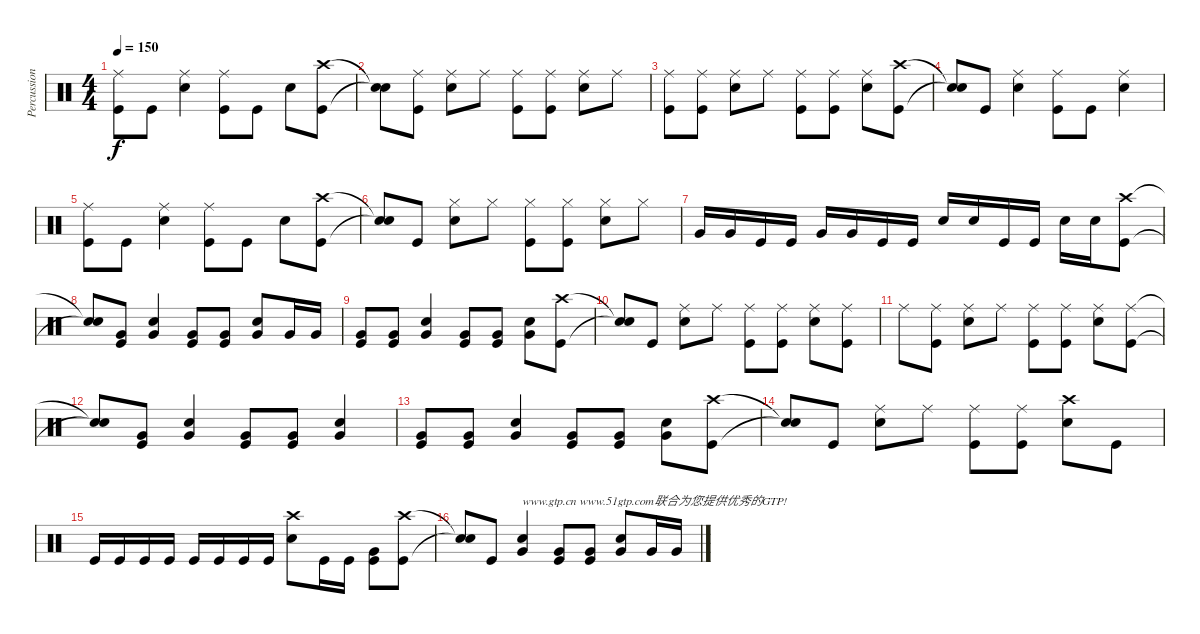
\track ("Percussion" "Percussion") {instrument percussion}
\staff {score}
\articulation defaults
\ts (4 4)
\tempo 150
\clef neutral
\ks c
("Ride (middle)" "Kick (hit)").8{dy f} "Kick (hit)".8 ("Ride (middle)" "Electric Snare (hit)").4 ("Ride (middle)" "Kick (hit)").8 "Kick (hit)".8 "Electric Snare (hit)".8 ("Crash high (hit)" "Kick (hit)").8 |
("Snare (hit)"{t} "Snare (hit)"{t}).8 ("Ride (middle)" "Kick (hit)").8 ("Ride (middle)" "Electric Snare (hit)").8 "Ride (middle)".8 ("Ride (middle)" "Kick (hit)").8 ("Ride (middle)" "Kick (hit)").8 ("Ride (middle)" "Electric Snare (hit)").8 "Ride (middle)".8 |
("Ride (middle)" "Kick (hit)").8 ("Ride (middle)" "Kick (hit)").8 ("Ride (middle)" "Electric Snare (hit)").8 "Ride (middle)".8 ("Ride (middle)" "Kick (hit)").8 ("Ride (middle)" "Kick (hit)").8 ("Ride (middle)" "Electric Snare (hit)").8 ("Crash high (hit)" "Kick (hit)").8 |
("Snare (hit)"{t} "Snare (hit)"{t}).8 "Kick (hit)".8 ("Ride (middle)" "Electric Snare (hit)").4 ("Ride (middle)" "Kick (hit)").8 "Kick (hit)".8 ("Ride (middle)" "Electric Snare (hit)").4 |
("Ride (middle)" "Kick (hit)").8 "Kick (hit)".8 ("Ride (middle)" "Electric Snare (hit)").4 ("Ride (middle)" "Kick (hit)").8 "Kick (hit)".8 "Electric Snare (hit)".8 ("Crash high (hit)" "Kick (hit)").8 |
("Snare (hit)"{t} "Snare (hit)"{t}).8 "Kick (hit)".8 ("Hi-Hat (closed)" "Electric Snare (hit)").8 "Hi-Hat (closed)".8 ("Hi-Hat (closed)" "Kick (hit)").8 ("Hi-Hat (closed)" "Kick (hit)").8 ("Hi-Hat (closed)" "Electric Snare (hit)").8 "Hi-Hat (closed)".8 |
"Very Low Tom (hit)".16 "Very Low Tom (hit)".16 "Kick (hit)".16 "Kick (hit)".16 "Very Low Tom (hit)".16 "Very Low Tom (hit)".16 "Kick (hit)".16 "Kick (hit)".16 "Electric Snare (hit)".16 "Electric Snare (hit)".16 "Kick (hit)".16 "Kick (hit)".16 "Electric Snare (hit)".16 "Electric Snare (hit)".16 ("Crash high (hit)" "Kick (hit)").8 |
("Snare (hit)"{t} "Snare (hit)"{t}).8 ("Very Low Tom (hit)" "Kick (hit)").8 ("Very Low Tom (hit)" "Electric Snare (hit)").4 ("Very Low Tom (hit)" "Kick (hit)").8 ("Very Low Tom (hit)" "Kick (hit)").8 ("Electric Snare (hit)" "Very Low Tom (hit)").8 "Very Low Tom (hit)".16 "Very Low Tom (hit)".16 |
("Very Low Tom (hit)" "Kick (hit)").8 ("Very Low Tom (hit)" "Kick (hit)").8 ("Very Low Tom (hit)" "Electric Snare (hit)").4 ("Very Low Tom (hit)" "Kick (hit)").8 ("Very Low Tom (hit)" "Kick (hit)").8 ("Very Low Tom (hit)" "Electric Snare (hit)").8 ("Crash high (hit)" "Kick (hit)").8 |
("Snare (hit)"{t} "Snare (hit)"{t}).8 "Kick (hit)".8 ("Ride (middle)" "Electric Snare (hit)").8 "Ride (middle)".8 ("Ride (middle)" "Kick (hit)").8 ("Ride (middle)" "Kick (hit)").8 ("Ride (middle)" "Electric Snare (hit)").8 ("Ride (middle)" "Kick (hit)").8 |
"Ride (middle)".8 ("Ride (middle)" "Kick (hit)").8 ("Ride (middle)" "Electric Snare (hit)").8 "Ride (middle)".8 ("Ride (middle)" "Kick (hit)").8 ("Ride (middle)" "Kick (hit)").8 ("Ride (middle)" "Electric Snare (hit)").8 ("Ride (middle)" "Kick (hit)").8 |
("Snare (hit)"{t} "Snare (hit)"{t}).8 ("Very Low Tom (hit)" "Kick (hit)").8 ("Electric Snare (hit)" "Very Low Tom (hit)").4 ("Very Low Tom (hit)" "Kick (hit)").8 ("Very Low Tom (hit)" "Kick (hit)").8 ("Electric Snare (hit)" "Very Low Tom (hit)").4 |
("Very Low Tom (hit)" "Kick (hit)").8 ("Very Low Tom (hit)" "Kick (hit)").8 ("Very Low Tom (hit)" "Electric Snare (hit)").4 ("Very Low Tom (hit)" "Kick (hit)").8 ("Very Low Tom (hit)" "Kick (hit)").8 ("Very Low Tom (hit)" "Electric Snare (hit)").8 ("Crash high (hit)" "Kick (hit)").8 |
("Snare (hit)"{t} "Snare (hit)"{t}).8 "Kick (hit)".8 ("Ride (middle)" "Electric Snare (hit)").8 "Ride (middle)".8 ("Ride (middle)" "Kick (hit)").8 ("Ride (middle)" "Kick (hit)").8 ("Crash high (hit)" "Electric Snare (hit)").8 "Kick (hit)".8 |
"Kick (hit)".16 "Kick (hit)".16 "Kick (hit)".16 "Kick (hit)".16 "Kick (hit)".16 "Kick (hit)".16 "Kick (hit)".16 "Kick (hit)".16 ("Crash high (hit)" "Electric Snare (hit)").8 "Kick (hit)".16 "Kick (hit)".16 ("Very Low Tom (hit)" "Kick (hit)").8 ("Crash high (hit)" "Kick (hit)").8 |
("Snare (hit)"{t} "Snare (hit)"{t}).8 "Kick (hit)".8 ("Electric Snare (hit)" "Very Low Tom (hit)").4{txt "www.gtp.cn www.51gtp.com联合为您提供优秀的GTP!"} ("Very Low Tom (hit)" "Kick (hit)").8 ("Very Low Tom (hit)" "Kick (hit)").8 ("Electric Snare (hit)" "Very Low Tom (hit)").8 "Very Low Tom (hit)".16 "Very Low Tom (hit)".16
